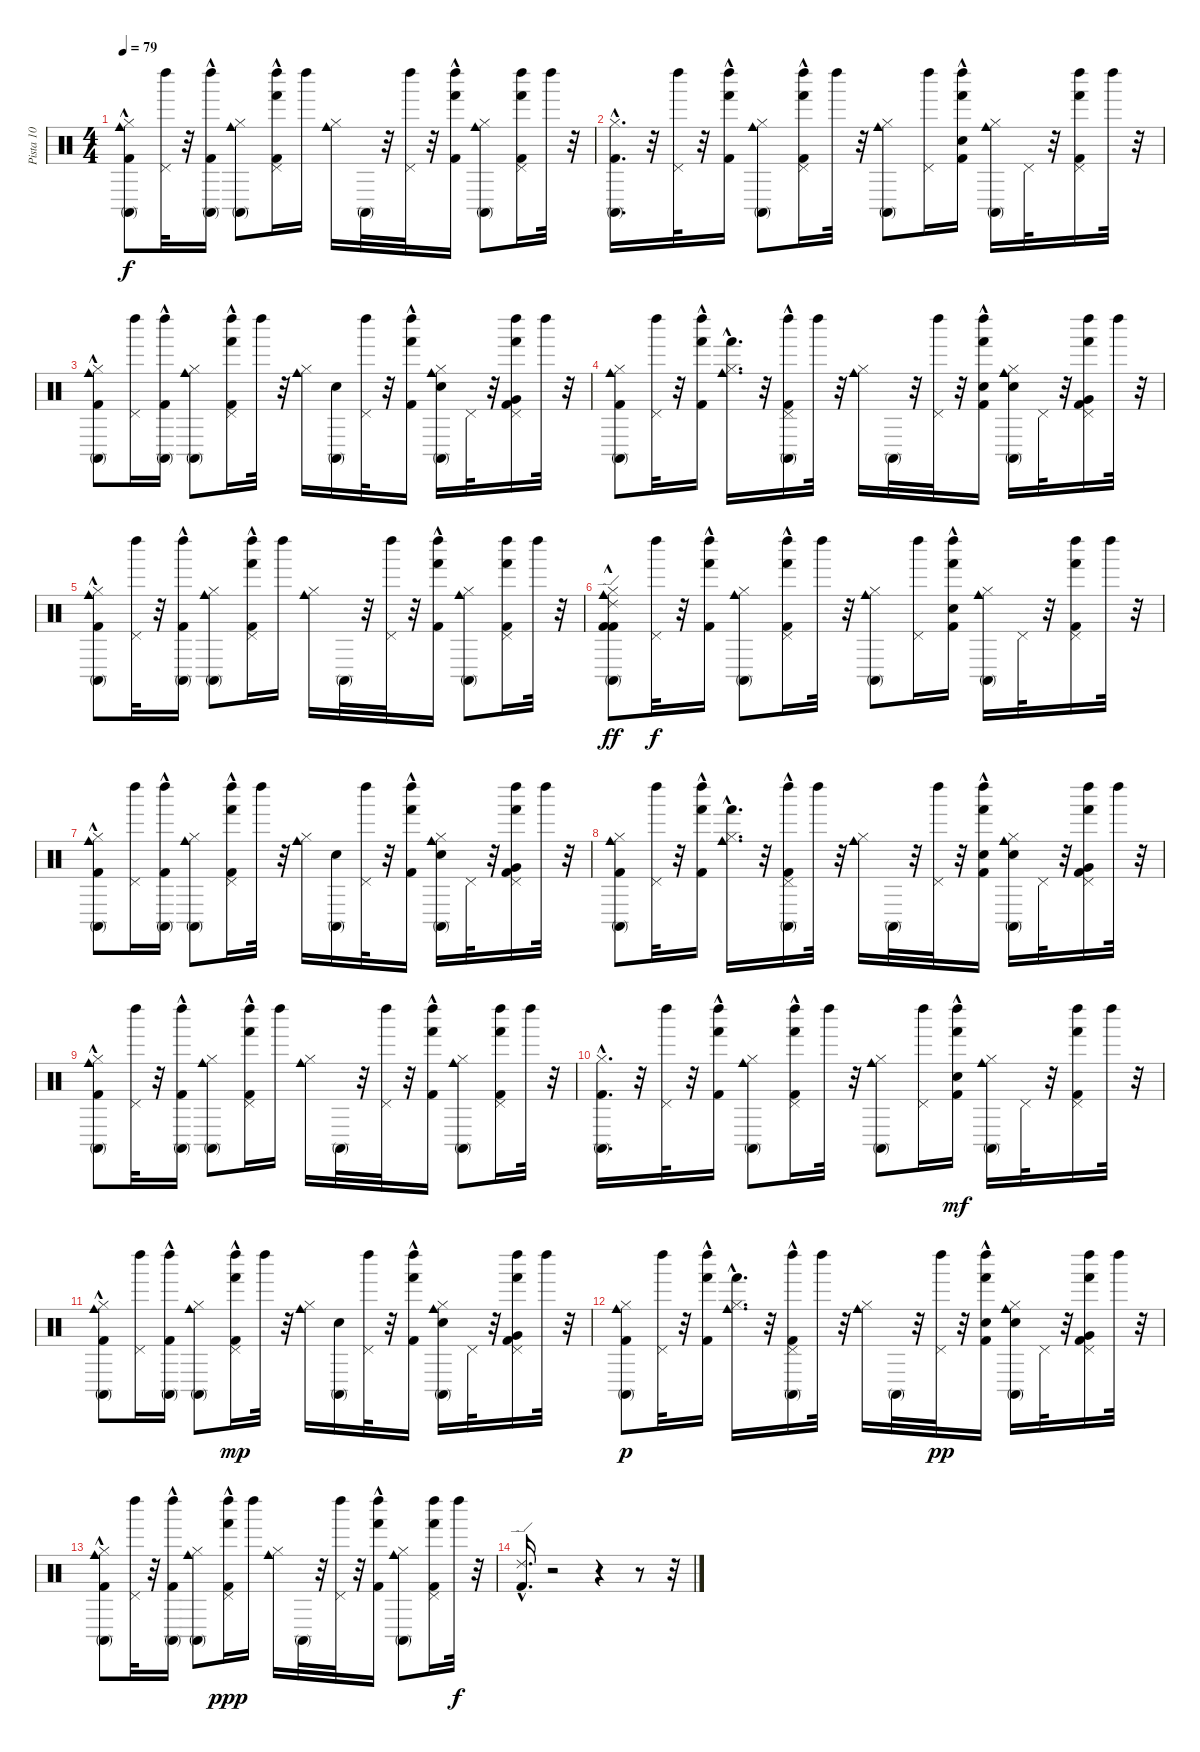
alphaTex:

\track ("Pista 10" "Pista 10") {instrument percussion}
\staff {score}
\articulation defaults
\ts (4 4)
\tempo 79
\clef neutral
\ks c
("Cowbell medium (hit)" "Kick (hit) 2"{hac} "Hi-Hat (closed)" "Conga high (mute)").8{dy f} ("Left Maraca (hit)" "Pedal Hi-Hat (hit)").32 r.32 ("Left Maraca (hit)" "Kick (hit) 2"{hac} "Conga high (mute)").16 ("Cowbell medium (hit)" "Hi-Hat (closed)" "Conga high (mute)").8 ("Left Maraca (hit)" "Kick (hit) 2"{hac} "Pedal Hi-Hat (hit)" "Hand (hit)").16 "Left Maraca (hit)".16 ("Cowbell medium (hit)" "Hi-Hat (closed)").16 "Conga high (mute)".32 r.32 ("Left Maraca (hit)" "Pedal Hi-Hat (hit)").32 r.32 ("Left Maraca (hit)" "Kick (hit) 2"{hac} "Hand (hit)").16 ("Cowbell medium (hit)" "Hi-Hat (closed)" "Conga high (mute)").8 ("Left Maraca (hit)" "Kick (hit) 2" "Pedal Hi-Hat (hit)" "Hand (hit)").16 "Left Maraca (hit)".32 r.32 |
("Kick (hit) 2"{hac} "Hi-Hat (closed)"{hac} "Conga high (mute)").16{d} r.32 ("Left Maraca (hit)" "Pedal Hi-Hat (hit)").32 r.32 ("Left Maraca (hit)" "Kick (hit) 2"{hac} "Hand (hit)").16 ("Cowbell medium (hit)" "Hi-Hat (closed)" "Conga high (mute)").8 ("Left Maraca (hit)" "Kick (hit) 2"{hac} "Pedal Hi-Hat (hit)" "Hand (hit)").16 "Left Maraca (hit)".32 r.32 ("Cowbell medium (hit)" "Hi-Hat (closed)" "Conga high (mute)").8 ("Left Maraca (hit)" "Pedal Hi-Hat (hit)").16 ("Left Maraca (hit)" "Kick (hit) 2"{hac} "Hand (hit)" "Snare (hit) 2").16 ("Cowbell medium (hit)" "Hi-Hat (closed)" "Conga high (mute)").16 "Pedal Hi-Hat (hit)".32 r.32 ("Left Maraca (hit)" "Kick (hit) 2" "Pedal Hi-Hat (hit)" "Hand (hit)").16 "Left Maraca (hit)".32 r.32 |
("Cowbell medium (hit)" "Kick (hit) 2"{hac} "Hi-Hat (closed)" "Conga high (mute)").8 ("Left Maraca (hit)" "Pedal Hi-Hat (hit)").16 ("Left Maraca (hit)" "Kick (hit) 2"{hac} "Conga high (mute)").16 ("Cowbell medium (hit)" "Hi-Hat (closed)" "Conga high (mute)").8 ("Left Maraca (hit)" "Kick (hit) 2"{hac} "Pedal Hi-Hat (hit)" "Hand (hit)").16 "Left Maraca (hit)".32 r.32 ("Cowbell medium (hit)" "Hi-Hat (closed)").16 ("Conga high (mute)" "Snare (hit) 2").16 ("Left Maraca (hit)" "Pedal Hi-Hat (hit)").32 r.32 ("Left Maraca (hit)" "Kick (hit) 2"{hac} "Hand (hit)").16 ("Cowbell medium (hit)" "Hi-Hat (closed)" "Conga high (mute)" "Snare (hit) 2").16 "Pedal Hi-Hat (hit)".32 r.32 ("Left Maraca (hit)" "Kick (hit) 2" "Pedal Hi-Hat (hit)" "Hand (hit)" "Very Low Tom (hit)").16 "Left Maraca (hit)".32 r.32 |
("Cowbell medium (hit)" "Kick (hit) 2" "Hi-Hat (closed)" "Conga high (mute)").8 ("Left Maraca (hit)" "Pedal Hi-Hat (hit)").32 r.32 ("Left Maraca (hit)" "Kick (hit) 2"{hac} "Hand (hit)").16 ("Cowbell medium (hit)"{hac} "Hi-Hat (closed)" "Hand (hit)").16{d} r.32 ("Left Maraca (hit)" "Kick (hit) 2"{hac} "Pedal Hi-Hat (hit)" "Conga high (mute)").16 "Left Maraca (hit)".32 r.32 ("Cowbell medium (hit)" "Hi-Hat (closed)").16 "Conga high (mute)".32 r.32 ("Left Maraca (hit)" "Pedal Hi-Hat (hit)").32 r.32 ("Left Maraca (hit)" "Kick (hit) 2"{hac} "Hand (hit)" "Snare (hit) 2").16 ("Cowbell medium (hit)" "Hi-Hat (closed)" "Conga high (mute)" "Snare (hit) 2").16 "Pedal Hi-Hat (hit)".32 r.32 ("Left Maraca (hit)" "Kick (hit) 2" "Pedal Hi-Hat (hit)" "Hand (hit)" "Very Low Tom (hit)").16 "Left Maraca (hit)".32 r.32 |
("Cowbell medium (hit)" "Kick (hit) 2"{hac} "Hi-Hat (closed)" "Conga high (mute)").8 ("Left Maraca (hit)" "Pedal Hi-Hat (hit)").32 r.32 ("Left Maraca (hit)" "Kick (hit) 2"{hac} "Conga high (mute)").16 ("Cowbell medium (hit)" "Hi-Hat (closed)" "Conga high (mute)").8 ("Left Maraca (hit)" "Kick (hit) 2"{hac} "Pedal Hi-Hat (hit)" "Hand (hit)").16 "Left Maraca (hit)".16 ("Cowbell medium (hit)" "Hi-Hat (closed)").16 "Conga high (mute)".32 r.32 ("Left Maraca (hit)" "Pedal Hi-Hat (hit)").32 r.32 ("Left Maraca (hit)" "Kick (hit) 2"{hac} "Hand (hit)").16 ("Cowbell medium (hit)" "Hi-Hat (closed)" "Conga high (mute)").8 ("Left Maraca (hit)" "Kick (hit) 2" "Pedal Hi-Hat (hit)" "Hand (hit)").16 "Left Maraca (hit)".32 r.32 |
("Ride (edge) 2" "Kick (hit) 2"{hac} "Cowbell medium (hit)" "Kick (hit) 2"{hac} "Hi-Hat (closed)"{hac} "Conga high (mute)").8{dy ff} ("Left Maraca (hit)" "Pedal Hi-Hat (hit)").32{dy f} r.32 ("Left Maraca (hit)" "Kick (hit) 2"{hac} "Hand (hit)").16 ("Cowbell medium (hit)" "Hi-Hat (closed)" "Conga high (mute)").8 ("Left Maraca (hit)" "Kick (hit) 2"{hac} "Pedal Hi-Hat (hit)" "Hand (hit)").16 "Left Maraca (hit)".32 r.32 ("Cowbell medium (hit)" "Hi-Hat (closed)" "Conga high (mute)").8 ("Left Maraca (hit)" "Pedal Hi-Hat (hit)").16 ("Left Maraca (hit)" "Kick (hit) 2"{hac} "Hand (hit)" "Snare (hit) 2").16 ("Cowbell medium (hit)" "Hi-Hat (closed)" "Conga high (mute)").16 "Pedal Hi-Hat (hit)".32 r.32 ("Left Maraca (hit)" "Kick (hit) 2" "Pedal Hi-Hat (hit)" "Hand (hit)").16 "Left Maraca (hit)".32 r.32 |
("Cowbell medium (hit)" "Kick (hit) 2"{hac} "Hi-Hat (closed)" "Conga high (mute)").8 ("Left Maraca (hit)" "Pedal Hi-Hat (hit)").16 ("Left Maraca (hit)" "Kick (hit) 2"{hac} "Conga high (mute)").16 ("Cowbell medium (hit)" "Hi-Hat (closed)" "Conga high (mute)").8 ("Left Maraca (hit)" "Kick (hit) 2"{hac} "Pedal Hi-Hat (hit)" "Hand (hit)").16 "Left Maraca (hit)".32 r.32 ("Cowbell medium (hit)" "Hi-Hat (closed)").16 ("Conga high (mute)" "Snare (hit) 2").16 ("Left Maraca (hit)" "Pedal Hi-Hat (hit)").32 r.32 ("Left Maraca (hit)" "Kick (hit) 2"{hac} "Hand (hit)").16 ("Cowbell medium (hit)" "Hi-Hat (closed)" "Conga high (mute)" "Snare (hit) 2").16 "Pedal Hi-Hat (hit)".32 r.32 ("Left Maraca (hit)" "Kick (hit) 2" "Pedal Hi-Hat (hit)" "Hand (hit)" "Very Low Tom (hit)").16 "Left Maraca (hit)".32 r.32 |
("Cowbell medium (hit)" "Kick (hit) 2" "Hi-Hat (closed)" "Conga high (mute)").8 ("Left Maraca (hit)" "Pedal Hi-Hat (hit)").32 r.32 ("Left Maraca (hit)" "Kick (hit) 2"{hac} "Hand (hit)").16 ("Cowbell medium (hit)"{hac} "Hi-Hat (closed)" "Hand (hit)").16{d} r.32 ("Left Maraca (hit)" "Kick (hit) 2"{hac} "Pedal Hi-Hat (hit)" "Conga high (mute)").16 "Left Maraca (hit)".32 r.32 ("Cowbell medium (hit)" "Hi-Hat (closed)").16 "Conga high (mute)".32 r.32 ("Left Maraca (hit)" "Pedal Hi-Hat (hit)").32 r.32 ("Left Maraca (hit)" "Kick (hit) 2"{hac} "Hand (hit)" "Snare (hit) 2").16 ("Cowbell medium (hit)" "Hi-Hat (closed)" "Conga high (mute)" "Snare (hit) 2").16 "Pedal Hi-Hat (hit)".32 r.32 ("Left Maraca (hit)" "Kick (hit) 2" "Pedal Hi-Hat (hit)" "Hand (hit)" "Very Low Tom (hit)").16 "Left Maraca (hit)".32 r.32 |
("Cowbell medium (hit)" "Kick (hit) 2"{hac} "Hi-Hat (closed)" "Conga high (mute)").8 ("Left Maraca (hit)" "Pedal Hi-Hat (hit)").32 r.32 ("Left Maraca (hit)" "Kick (hit) 2"{hac} "Conga high (mute)").16 ("Cowbell medium (hit)" "Hi-Hat (closed)" "Conga high (mute)").8 ("Left Maraca (hit)" "Kick (hit) 2"{hac} "Pedal Hi-Hat (hit)" "Hand (hit)").16 "Left Maraca (hit)".16 ("Cowbell medium (hit)" "Hi-Hat (closed)").16 "Conga high (mute)".32 r.32 ("Left Maraca (hit)" "Pedal Hi-Hat (hit)").32 r.32 ("Left Maraca (hit)" "Kick (hit) 2"{hac} "Hand (hit)").16 ("Cowbell medium (hit)" "Hi-Hat (closed)" "Conga high (mute)").8 ("Left Maraca (hit)" "Kick (hit) 2" "Pedal Hi-Hat (hit)" "Hand (hit)").16 "Left Maraca (hit)".32 r.32 |
("Kick (hit) 2"{hac} "Hi-Hat (closed)"{hac} "Conga high (mute)").16{d} r.32 ("Left Maraca (hit)" "Pedal Hi-Hat (hit)").32 r.32 ("Left Maraca (hit)" "Kick (hit) 2"{hac} "Hand (hit)").16 ("Cowbell medium (hit)" "Hi-Hat (closed)" "Conga high (mute)").8 ("Left Maraca (hit)" "Kick (hit) 2"{hac} "Pedal Hi-Hat (hit)" "Hand (hit)").16 "Left Maraca (hit)".32 r.32 ("Cowbell medium (hit)" "Hi-Hat (closed)" "Conga high (mute)").8 ("Left Maraca (hit)" "Pedal Hi-Hat (hit)").16 ("Left Maraca (hit)" "Kick (hit) 2"{hac} "Hand (hit)" "Snare (hit) 2").16{dy mf} ("Cowbell medium (hit)" "Hi-Hat (closed)" "Conga high (mute)").16 "Pedal Hi-Hat (hit)".32 r.32 ("Left Maraca (hit)" "Kick (hit) 2" "Pedal Hi-Hat (hit)" "Hand (hit)").16 "Left Maraca (hit)".32 r.32 |
("Cowbell medium (hit)" "Kick (hit) 2"{hac} "Hi-Hat (closed)" "Conga high (mute)").8 ("Left Maraca (hit)" "Pedal Hi-Hat (hit)").16 ("Left Maraca (hit)" "Kick (hit) 2"{hac} "Conga high (mute)").16 ("Cowbell medium (hit)" "Hi-Hat (closed)" "Conga high (mute)").8 ("Left Maraca (hit)" "Kick (hit) 2"{hac} "Pedal Hi-Hat (hit)" "Hand (hit)").16{dy mp} "Left Maraca (hit)".32 r.32 ("Cowbell medium (hit)" "Hi-Hat (closed)").16 ("Conga high (mute)" "Snare (hit) 2").16 ("Left Maraca (hit)" "Pedal Hi-Hat (hit)").32 r.32 ("Left Maraca (hit)" "Kick (hit) 2"{hac} "Hand (hit)").16 ("Cowbell medium (hit)" "Hi-Hat (closed)" "Conga high (mute)" "Snare (hit) 2").16 "Pedal Hi-Hat (hit)".32 r.32 ("Left Maraca (hit)" "Kick (hit) 2" "Pedal Hi-Hat (hit)" "Hand (hit)" "Very Low Tom (hit)").16 "Left Maraca (hit)".32 r.32 |
("Cowbell medium (hit)" "Kick (hit) 2" "Hi-Hat (closed)" "Conga high (mute)").8{dy p} ("Left Maraca (hit)" "Pedal Hi-Hat (hit)").32 r.32 ("Left Maraca (hit)" "Kick (hit) 2"{hac} "Hand (hit)").16 ("Cowbell medium (hit)"{hac} "Hi-Hat (closed)" "Hand (hit)").16{d} r.32 ("Left Maraca (hit)" "Kick (hit) 2"{hac} "Pedal Hi-Hat (hit)" "Conga high (mute)").16 "Left Maraca (hit)".32 r.32 ("Cowbell medium (hit)" "Hi-Hat (closed)").16 "Conga high (mute)".32 r.32 ("Left Maraca (hit)" "Pedal Hi-Hat (hit)").32{dy pp} r.32 ("Left Maraca (hit)" "Kick (hit) 2"{hac} "Hand (hit)" "Snare (hit) 2").16 ("Cowbell medium (hit)" "Hi-Hat (closed)" "Conga high (mute)" "Snare (hit) 2").16 "Pedal Hi-Hat (hit)".32 r.32 ("Left Maraca (hit)" "Kick (hit) 2" "Pedal Hi-Hat (hit)" "Hand (hit)" "Very Low Tom (hit)").16 "Left Maraca (hit)".32 r.32 |
("Cowbell medium (hit)" "Kick (hit) 2"{hac} "Hi-Hat (closed)" "Conga high (mute)").8 ("Left Maraca (hit)" "Pedal Hi-Hat (hit)").32 r.32 ("Left Maraca (hit)" "Kick (hit) 2"{hac} "Conga high (mute)").16 ("Cowbell medium (hit)" "Hi-Hat (closed)" "Conga high (mute)").8 ("Left Maraca (hit)" "Kick (hit) 2"{hac} "Pedal Hi-Hat (hit)" "Hand (hit)").16{dy ppp} "Left Maraca (hit)".16 ("Cowbell medium (hit)" "Hi-Hat (closed)").16 "Conga high (mute)".32 r.32 ("Left Maraca (hit)" "Pedal Hi-Hat (hit)").32 r.32 ("Left Maraca (hit)" "Kick (hit) 2"{hac} "Hand (hit)").16 ("Cowbell medium (hit)" "Hi-Hat (closed)" "Conga high (mute)").8 ("Left Maraca (hit)" "Kick (hit) 2" "Pedal Hi-Hat (hit)" "Hand (hit)").16 "Left Maraca (hit)".32{dy f} r.32 |
("Ride (edge) 2" "Kick (hit) 2"{hac}).16{d} r.2 r.4 r.8 r.32
